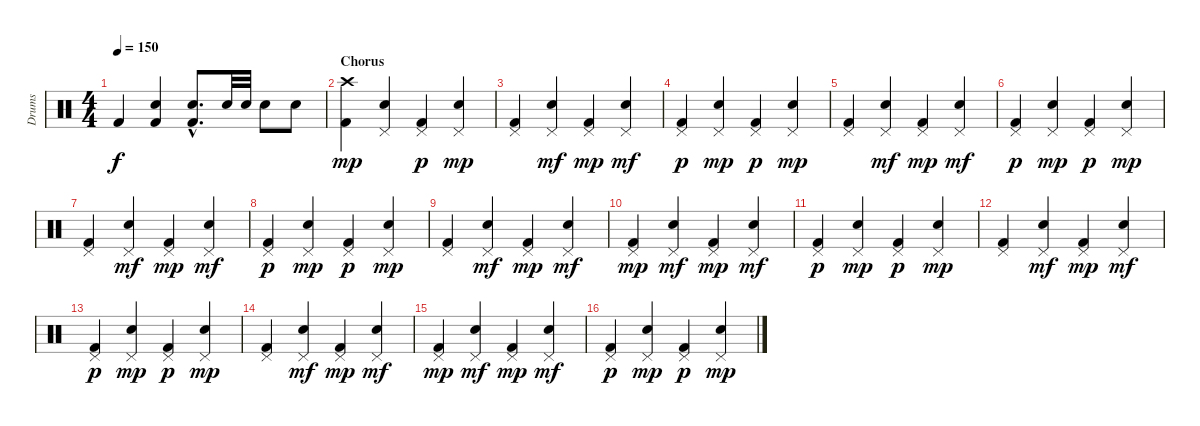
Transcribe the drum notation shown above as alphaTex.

\track ("Drums" "Drums") {instrument percussion}
\staff {score}
\articulation defaults
\ts (4 4)
\tempo 150
\clef neutral
\ks c "Kick (hit) 2".4{dy f}
("Electric Snare (hit)" "Kick (hit) 2").4 ("Electric Snare (hit)"{hac} "Kick (hit) 2"{hac}).8{d} "Electric Snare (hit)".32 "Electric Snare (hit)".32 "Electric Snare (hit)".8 "Electric Snare (hit)".8 |
\section ("" "Chorus")
("Crash high (hit)" "Kick (hit) 2").4{dy mp} ("Pedal Hi-Hat (hit)" "Electric Snare (hit)").4 ("Pedal Hi-Hat (hit)" "Kick (hit) 2").4{dy p} ("Pedal Hi-Hat (hit)" "Electric Snare (hit)").4{dy mp} |
("Pedal Hi-Hat (hit)" "Kick (hit) 2").4 ("Pedal Hi-Hat (hit)" "Electric Snare (hit)").4{dy mf} ("Pedal Hi-Hat (hit)" "Kick (hit) 2").4{dy mp} ("Pedal Hi-Hat (hit)" "Electric Snare (hit)").4{dy mf} |
("Pedal Hi-Hat (hit)" "Kick (hit) 2").4{dy p} ("Pedal Hi-Hat (hit)" "Electric Snare (hit)").4{dy mp} ("Pedal Hi-Hat (hit)" "Kick (hit) 2").4{dy p} ("Pedal Hi-Hat (hit)" "Electric Snare (hit)").4{dy mp} |
("Pedal Hi-Hat (hit)" "Kick (hit) 2").4 ("Pedal Hi-Hat (hit)" "Electric Snare (hit)").4{dy mf} ("Pedal Hi-Hat (hit)" "Kick (hit) 2").4{dy mp} ("Pedal Hi-Hat (hit)" "Electric Snare (hit)").4{dy mf} |
("Pedal Hi-Hat (hit)" "Kick (hit) 2").4{dy p} ("Pedal Hi-Hat (hit)" "Electric Snare (hit)").4{dy mp} ("Pedal Hi-Hat (hit)" "Kick (hit) 2").4{dy p} ("Pedal Hi-Hat (hit)" "Electric Snare (hit)").4{dy mp} |
("Pedal Hi-Hat (hit)" "Kick (hit) 2").4 ("Pedal Hi-Hat (hit)" "Electric Snare (hit)").4{dy mf} ("Pedal Hi-Hat (hit)" "Kick (hit) 2").4{dy mp} ("Pedal Hi-Hat (hit)" "Electric Snare (hit)").4{dy mf} |
("Pedal Hi-Hat (hit)" "Kick (hit) 2").4{dy p} ("Pedal Hi-Hat (hit)" "Electric Snare (hit)").4{dy mp} ("Pedal Hi-Hat (hit)" "Kick (hit) 2").4{dy p} ("Pedal Hi-Hat (hit)" "Electric Snare (hit)").4{dy mp} |
("Pedal Hi-Hat (hit)" "Kick (hit) 2").4 ("Pedal Hi-Hat (hit)" "Electric Snare (hit)").4{dy mf} ("Pedal Hi-Hat (hit)" "Kick (hit) 2").4{dy mp} ("Pedal Hi-Hat (hit)" "Electric Snare (hit)").4{dy mf} |
("Pedal Hi-Hat (hit)" "Kick (hit) 2").4{dy mp} ("Pedal Hi-Hat (hit)" "Electric Snare (hit)").4{dy mf} ("Pedal Hi-Hat (hit)" "Kick (hit) 2").4{dy mp} ("Pedal Hi-Hat (hit)" "Electric Snare (hit)").4{dy mf} |
("Pedal Hi-Hat (hit)" "Kick (hit) 2").4{dy p} ("Pedal Hi-Hat (hit)" "Electric Snare (hit)").4{dy mp} ("Pedal Hi-Hat (hit)" "Kick (hit) 2").4{dy p} ("Pedal Hi-Hat (hit)" "Electric Snare (hit)").4{dy mp} |
("Pedal Hi-Hat (hit)" "Kick (hit) 2").4 ("Pedal Hi-Hat (hit)" "Electric Snare (hit)").4{dy mf} ("Pedal Hi-Hat (hit)" "Kick (hit) 2").4{dy mp} ("Pedal Hi-Hat (hit)" "Electric Snare (hit)").4{dy mf} |
("Pedal Hi-Hat (hit)" "Kick (hit) 2").4{dy p} ("Pedal Hi-Hat (hit)" "Electric Snare (hit)").4{dy mp} ("Pedal Hi-Hat (hit)" "Kick (hit) 2").4{dy p} ("Pedal Hi-Hat (hit)" "Electric Snare (hit)").4{dy mp} |
("Pedal Hi-Hat (hit)" "Kick (hit) 2").4 ("Pedal Hi-Hat (hit)" "Electric Snare (hit)").4{dy mf} ("Pedal Hi-Hat (hit)" "Kick (hit) 2").4{dy mp} ("Pedal Hi-Hat (hit)" "Electric Snare (hit)").4{dy mf} |
("Pedal Hi-Hat (hit)" "Kick (hit) 2").4{dy mp} ("Pedal Hi-Hat (hit)" "Electric Snare (hit)").4{dy mf} ("Pedal Hi-Hat (hit)" "Kick (hit) 2").4{dy mp} ("Pedal Hi-Hat (hit)" "Electric Snare (hit)").4{dy mf} |
("Pedal Hi-Hat (hit)" "Kick (hit) 2").4{dy p} ("Pedal Hi-Hat (hit)" "Electric Snare (hit)").4{dy mp} ("Pedal Hi-Hat (hit)" "Kick (hit) 2").4{dy p} ("Pedal Hi-Hat (hit)" "Electric Snare (hit)").4{dy mp}
